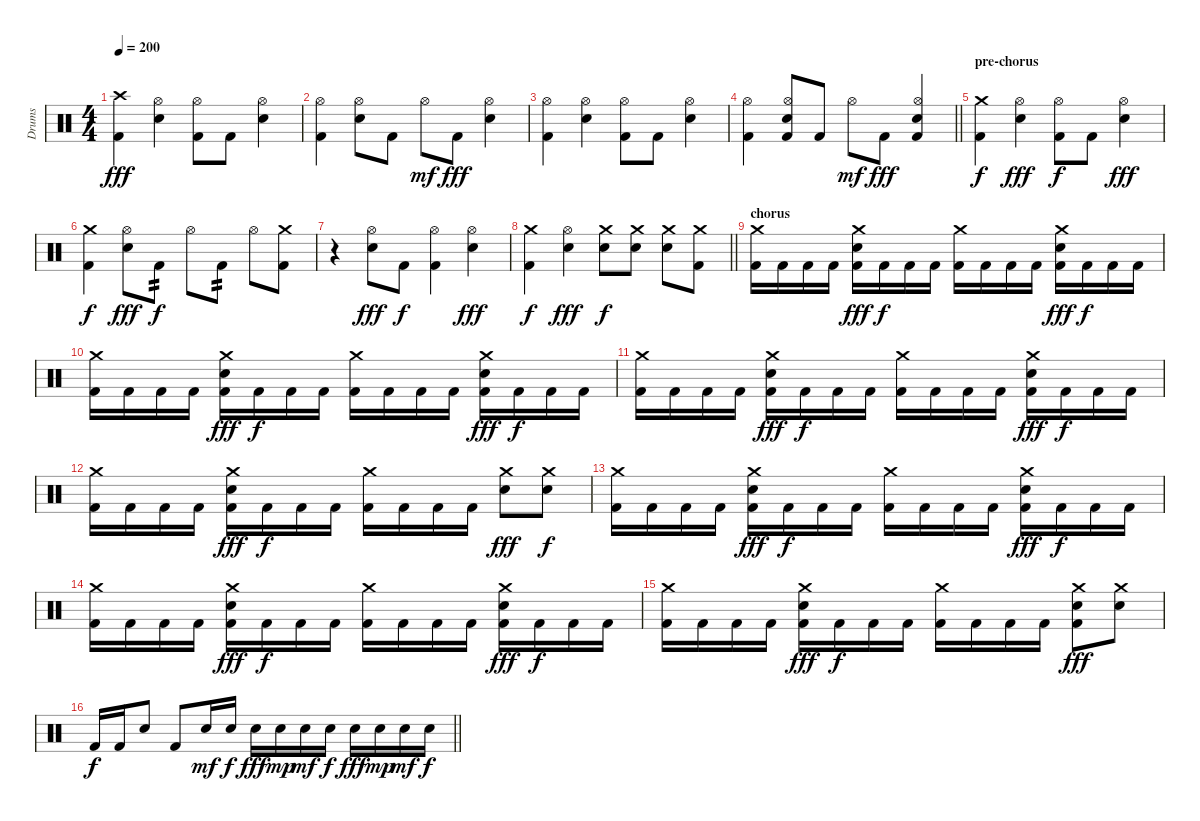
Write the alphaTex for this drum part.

\track ("Drums" "Drums") {instrument percussion}
\staff {score}
\articulation defaults
\ts (4 4)
\tempo 200
\clef neutral
\ks c
("Crash high (hit)" "Kick (hit) 2").4{dy fff} ("Hi-Hat (open)" "Electric Snare (hit)").4 ("Hi-Hat (open)" "Kick (hit) 2").8 "Kick (hit) 2".8 ("Hi-Hat (open)" "Electric Snare (hit)").4 |
("Hi-Hat (open)" "Kick (hit) 2").4 ("Hi-Hat (open)" "Electric Snare (hit)").8 "Kick (hit) 2".8 "Hi-Hat (open)".8{dy mf} "Kick (hit) 2".8{dy fff} ("Hi-Hat (open)" "Electric Snare (hit)").4 |
("Hi-Hat (open)" "Kick (hit) 2").4 ("Hi-Hat (open)" "Electric Snare (hit)").4 ("Hi-Hat (open)" "Kick (hit) 2").8 "Kick (hit) 2".8 ("Hi-Hat (open)" "Electric Snare (hit)").4 |
\barLineRight lightlight
("Hi-Hat (open)" "Kick (hit) 2").4 ("Hi-Hat (open)" "Electric Snare (hit)" "Kick (hit) 2").8 "Kick (hit) 2".8 "Hi-Hat (open)".8{dy mf} "Kick (hit) 2".8{dy fff} ("Hi-Hat (open)" "Electric Snare (hit)" "Kick (hit) 2").4 |
\section ("" "pre-chorus")
("Crash medium (hit)" "Kick (hit) 2").4{dy f} ("Hi-Hat (open)" "Electric Snare (hit)").4{dy fff} ("Hi-Hat (open)" "Kick (hit) 2").8{dy f} "Kick (hit) 2".8 ("Hi-Hat (open)" "Electric Snare (hit)").4{dy fff} |
("Crash medium (hit)" "Kick (hit) 2").4{dy f} ("Hi-Hat (open)" "Electric Snare (hit)").8{dy fff} "Kick (hit) 2".8{tp 2 dy f} "Hi-Hat (open)".8 "Kick (hit) 2".8{tp 2} "Hi-Hat (open)".8 ("Crash medium (hit)" "Kick (hit) 2").8 |
r.4 ("Hi-Hat (open)" "Electric Snare (hit)").8{dy fff} "Kick (hit) 2".8{dy f} ("Hi-Hat (open)" "Kick (hit) 2").4 ("Hi-Hat (open)" "Electric Snare (hit)").4{dy fff} |
\barLineRight lightlight
("Crash medium (hit)" "Kick (hit) 2").4{dy f} ("Hi-Hat (open)" "Electric Snare (hit)").4{dy fff} ("Crash medium (hit)" "Electric Snare (hit)").8{dy f} ("Crash medium (hit)" "Electric Snare (hit)").8 ("Crash medium (hit)" "Electric Snare (hit)").8 ("Crash medium (hit)" "Kick (hit) 2").8 |
\section ("" "chorus")
("Crash medium (hit)" "Kick (hit) 2").16 "Kick (hit) 2".16 "Kick (hit) 2".16 "Kick (hit) 2".16 ("Crash medium (hit)" "Electric Snare (hit)" "Kick (hit) 2").16{dy fff} "Kick (hit) 2".16{dy f} "Kick (hit) 2".16 "Kick (hit) 2".16 ("Crash medium (hit)" "Kick (hit) 2").16 "Kick (hit) 2".16 "Kick (hit) 2".16 "Kick (hit) 2".16 ("Crash medium (hit)" "Electric Snare (hit)" "Kick (hit) 2").16{dy fff} "Kick (hit) 2".16{dy f} "Kick (hit) 2".16 "Kick (hit) 2".16 |
("Crash medium (hit)" "Kick (hit) 2").16 "Kick (hit) 2".16 "Kick (hit) 2".16 "Kick (hit) 2".16 ("Crash medium (hit)" "Electric Snare (hit)" "Kick (hit) 2").16{dy fff} "Kick (hit) 2".16{dy f} "Kick (hit) 2".16 "Kick (hit) 2".16 ("Crash medium (hit)" "Kick (hit) 2").16 "Kick (hit) 2".16 "Kick (hit) 2".16 "Kick (hit) 2".16 ("Crash medium (hit)" "Electric Snare (hit)" "Kick (hit) 2").16{dy fff} "Kick (hit) 2".16{dy f} "Kick (hit) 2".16 "Kick (hit) 2".16 |
("Crash medium (hit)" "Kick (hit) 2").16 "Kick (hit) 2".16 "Kick (hit) 2".16 "Kick (hit) 2".16 ("Crash medium (hit)" "Electric Snare (hit)" "Kick (hit) 2").16{dy fff} "Kick (hit) 2".16{dy f} "Kick (hit) 2".16 "Kick (hit) 2".16 ("Crash medium (hit)" "Kick (hit) 2").16 "Kick (hit) 2".16 "Kick (hit) 2".16 "Kick (hit) 2".16 ("Crash medium (hit)" "Electric Snare (hit)" "Kick (hit) 2").16{dy fff} "Kick (hit) 2".16{dy f} "Kick (hit) 2".16 "Kick (hit) 2".16 |
("Crash medium (hit)" "Kick (hit) 2").16 "Kick (hit) 2".16 "Kick (hit) 2".16 "Kick (hit) 2".16 ("Crash medium (hit)" "Electric Snare (hit)" "Kick (hit) 2").16{dy fff} "Kick (hit) 2".16{dy f} "Kick (hit) 2".16 "Kick (hit) 2".16 ("Crash medium (hit)" "Kick (hit) 2").16 "Kick (hit) 2".16 "Kick (hit) 2".16 "Kick (hit) 2".16 ("Crash medium (hit)" "Electric Snare (hit)").8{dy fff} ("Crash medium (hit)" "Electric Snare (hit)").8{dy f} |
("Crash medium (hit)" "Kick (hit) 2").16 "Kick (hit) 2".16 "Kick (hit) 2".16 "Kick (hit) 2".16 ("Crash medium (hit)" "Electric Snare (hit)" "Kick (hit) 2").16{dy fff} "Kick (hit) 2".16{dy f} "Kick (hit) 2".16 "Kick (hit) 2".16 ("Crash medium (hit)" "Kick (hit) 2").16 "Kick (hit) 2".16 "Kick (hit) 2".16 "Kick (hit) 2".16 ("Crash medium (hit)" "Electric Snare (hit)" "Kick (hit) 2").16{dy fff} "Kick (hit) 2".16{dy f} "Kick (hit) 2".16 "Kick (hit) 2".16 |
("Crash medium (hit)" "Kick (hit) 2").16 "Kick (hit) 2".16 "Kick (hit) 2".16 "Kick (hit) 2".16 ("Crash medium (hit)" "Electric Snare (hit)" "Kick (hit) 2").16{dy fff} "Kick (hit) 2".16{dy f} "Kick (hit) 2".16 "Kick (hit) 2".16 ("Crash medium (hit)" "Kick (hit) 2").16 "Kick (hit) 2".16 "Kick (hit) 2".16 "Kick (hit) 2".16 ("Crash medium (hit)" "Electric Snare (hit)" "Kick (hit) 2").16{dy fff} "Kick (hit) 2".16{dy f} "Kick (hit) 2".16 "Kick (hit) 2".16 |
("Crash medium (hit)" "Kick (hit) 2").16 "Kick (hit) 2".16 "Kick (hit) 2".16 "Kick (hit) 2".16 ("Crash medium (hit)" "Electric Snare (hit)" "Kick (hit) 2").16{dy fff} "Kick (hit) 2".16{dy f} "Kick (hit) 2".16 "Kick (hit) 2".16 ("Crash medium (hit)" "Kick (hit) 2").16 "Kick (hit) 2".16 "Kick (hit) 2".16 "Kick (hit) 2".16 ("Crash medium (hit)" "Electric Snare (hit)" "Kick (hit) 2").8{dy fff} ("Crash medium (hit)" "Electric Snare (hit)").8 |
\barLineRight lightlight "Kick (hit) 2".16{dy f} "Kick (hit) 2".16 "Electric Snare (hit)".8 "Kick (hit) 2".8 "Electric Snare (hit)".16{dy mf} "Electric Snare (hit)".16{dy f} "Electric Snare (hit)".16{dy fff} "Electric Snare (hit)".16{dy mp} "Electric Snare (hit)".16{dy mf} "Electric Snare (hit)".16{dy f} "Electric Snare (hit)".16{dy fff} "Electric Snare (hit)".16{dy mp} "Electric Snare (hit)".16{dy mf} "Electric Snare (hit)".16{dy f}
